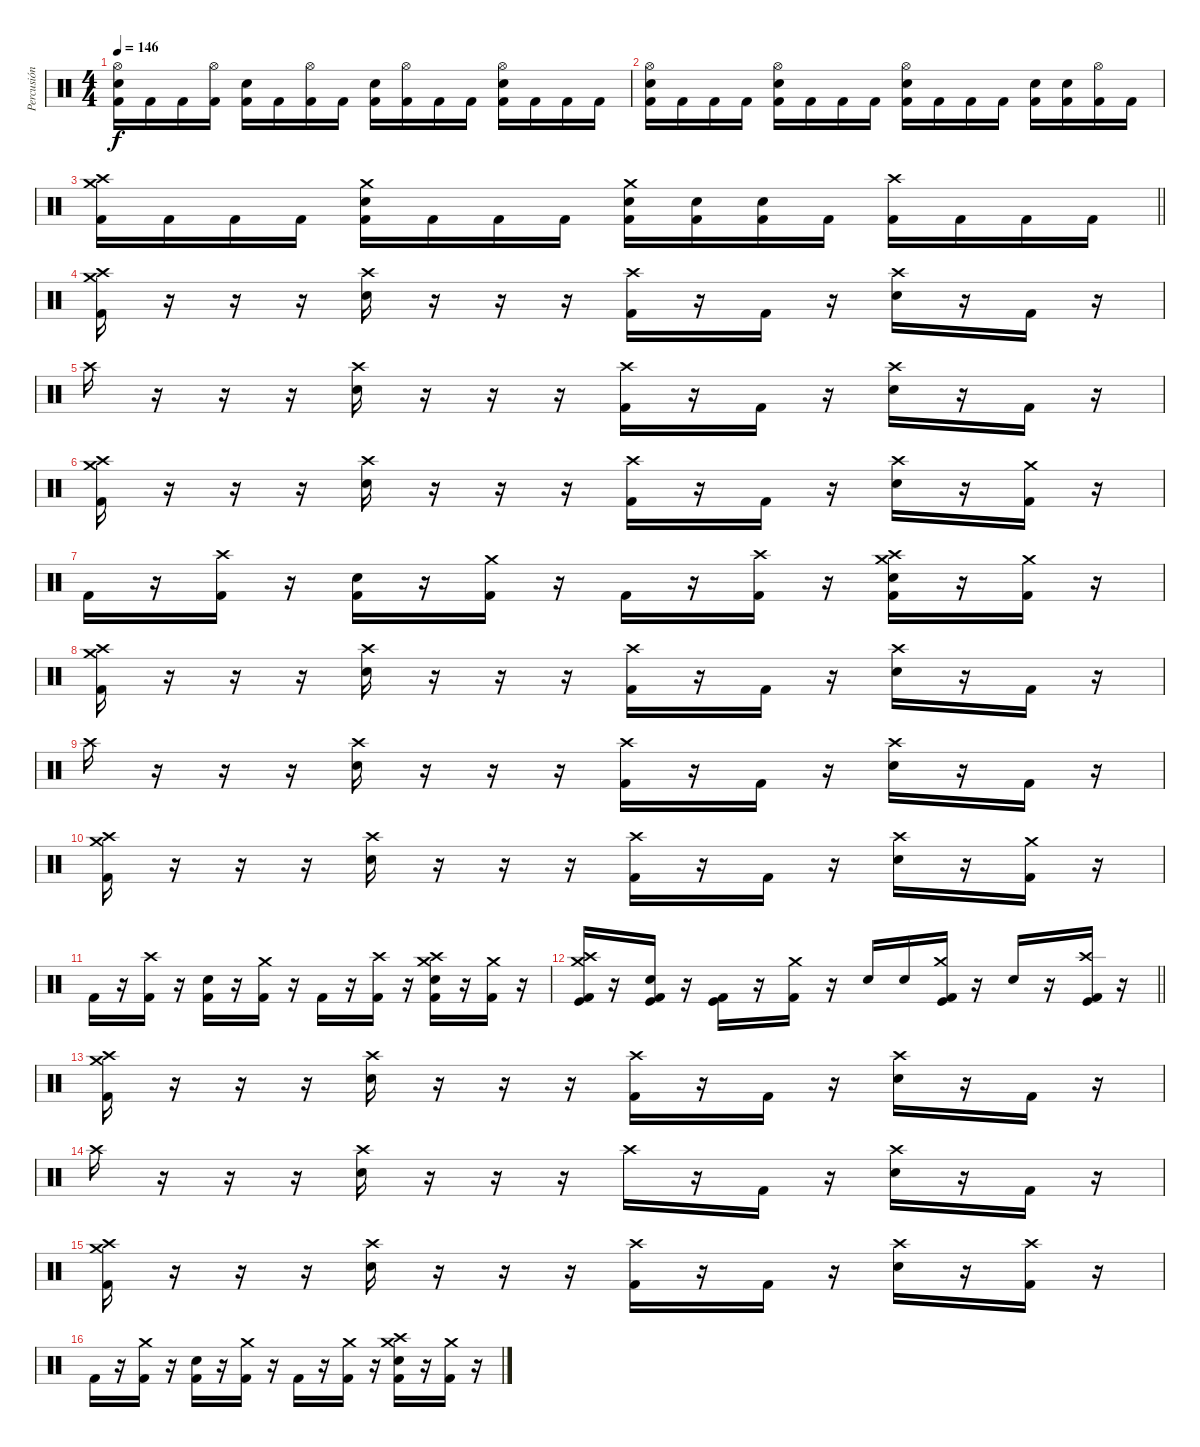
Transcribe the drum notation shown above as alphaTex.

\track ("Percusión" "Percusión") {instrument percussion}
\staff {score}
\articulation defaults
\ts (4 4)
\tempo 146
\clef neutral
\ks c
("Hi-Hat (open)" "Electric Snare (hit)" "Kick (hit) 2").16{dy f} "Kick (hit) 2".16 "Kick (hit) 2".16 ("Hi-Hat (open)" "Kick (hit) 2").16 ("Electric Snare (hit)" "Kick (hit) 2").16 "Kick (hit) 2".16 ("Hi-Hat (open)" "Kick (hit) 2").16 "Kick (hit) 2".16 ("Electric Snare (hit)" "Kick (hit) 2").16 ("Hi-Hat (open)" "Kick (hit) 2").16 "Kick (hit) 2".16 "Kick (hit) 2".16 ("Hi-Hat (open)" "Electric Snare (hit)" "Kick (hit) 2").16 "Kick (hit) 2".16 "Kick (hit) 2".16 "Kick (hit) 2".16 |
("Hi-Hat (open)" "Electric Snare (hit)" "Kick (hit) 2").16 "Kick (hit) 2".16 "Kick (hit) 2".16 "Kick (hit) 2".16 ("Hi-Hat (open)" "Electric Snare (hit)" "Kick (hit) 2").16 "Kick (hit) 2".16 "Kick (hit) 2".16 "Kick (hit) 2".16 ("Hi-Hat (open)" "Electric Snare (hit)" "Kick (hit) 2").16 "Kick (hit) 2".16 "Kick (hit) 2".16 "Kick (hit) 2".16 ("Electric Snare (hit)" "Kick (hit) 2").16 ("Electric Snare (hit)" "Kick (hit) 2").16 ("Hi-Hat (open)" "Kick (hit) 2").16 "Kick (hit) 2".16 |
\barLineRight lightlight
("Crash medium (hit)" "Crash high (hit)" "Kick (hit) 2").16 "Kick (hit) 2".16 "Kick (hit) 2".16 "Kick (hit) 2".16 ("Crash medium (hit)" "Electric Snare (hit)" "Kick (hit) 2").16 "Kick (hit) 2".16 "Kick (hit) 2".16 "Kick (hit) 2".16 ("Crash medium (hit)" "Electric Snare (hit)" "Kick (hit) 2").16 ("Electric Snare (hit)" "Kick (hit) 2").16 ("Electric Snare (hit)" "Kick (hit) 2").16 "Kick (hit) 2".16 ("Crash high (hit)" "Kick (hit) 2").16 "Kick (hit) 2".16 "Kick (hit) 2".16 "Kick (hit) 2".16 |
("Crash high (hit)" "Crash medium (hit)" "Kick (hit) 2").16 r.16 r.16 r.16 ("Crash high (hit)" "Electric Snare (hit)").16 r.16 r.16 r.16 ("Crash high (hit)" "Kick (hit) 2").16 r.16 "Kick (hit) 2".16 r.16 ("Crash high (hit)" "Electric Snare (hit)").16 r.16 "Kick (hit) 2".16 r.16 |
"Crash high (hit)".16 r.16 r.16 r.16 ("Crash high (hit)" "Electric Snare (hit)").16 r.16 r.16 r.16 ("Crash high (hit)" "Kick (hit) 2").16 r.16 "Kick (hit) 2".16 r.16 ("Crash high (hit)" "Electric Snare (hit)").16 r.16 "Kick (hit) 2".16 r.16 |
("Crash high (hit)" "Crash medium (hit)" "Kick (hit) 2").16 r.16 r.16 r.16 ("Crash high (hit)" "Electric Snare (hit)").16 r.16 r.16 r.16 ("Crash high (hit)" "Kick (hit) 2").16 r.16 "Kick (hit) 2".16 r.16 ("Crash high (hit)" "Electric Snare (hit)").16 r.16 ("Crash medium (hit)" "Kick (hit) 2").16 r.16 |
"Kick (hit) 2".16 r.16 ("Crash high (hit)" "Kick (hit) 2").16 r.16 ("Electric Snare (hit)" "Kick (hit) 2").16 r.16 ("Crash medium (hit)" "Kick (hit) 2").16 r.16 "Kick (hit) 2".16 r.16 ("Crash high (hit)" "Kick (hit) 2").16 r.16 ("Crash high (hit)" "Crash medium (hit)" "Electric Snare (hit)" "Kick (hit) 2").16 r.16 ("Crash medium (hit)" "Kick (hit) 2").16 r.16 |
("Crash high (hit)" "Crash medium (hit)" "Kick (hit) 2").16 r.16 r.16 r.16 ("Crash high (hit)" "Electric Snare (hit)").16 r.16 r.16 r.16 ("Crash high (hit)" "Kick (hit) 2").16 r.16 "Kick (hit) 2".16 r.16 ("Crash high (hit)" "Electric Snare (hit)").16 r.16 "Kick (hit) 2".16 r.16 |
"Crash high (hit)".16 r.16 r.16 r.16 ("Crash high (hit)" "Electric Snare (hit)").16 r.16 r.16 r.16 ("Crash high (hit)" "Kick (hit) 2").16 r.16 "Kick (hit) 2".16 r.16 ("Crash high (hit)" "Electric Snare (hit)").16 r.16 "Kick (hit) 2".16 r.16 |
("Crash high (hit)" "Crash medium (hit)" "Kick (hit) 2").16 r.16 r.16 r.16 ("Crash high (hit)" "Electric Snare (hit)").16 r.16 r.16 r.16 ("Crash high (hit)" "Kick (hit) 2").16 r.16 "Kick (hit) 2".16 r.16 ("Crash high (hit)" "Electric Snare (hit)").16 r.16 ("Crash medium (hit)" "Kick (hit) 2").16 r.16 |
"Kick (hit) 2".16 r.16 ("Crash high (hit)" "Kick (hit) 2").16 r.16 ("Electric Snare (hit)" "Kick (hit) 2").16 r.16 ("Crash medium (hit)" "Kick (hit) 2").16 r.16 "Kick (hit) 2".16 r.16 ("Crash high (hit)" "Kick (hit) 2").16 r.16 ("Crash high (hit)" "Crash medium (hit)" "Electric Snare (hit)" "Kick (hit) 2").16 r.16 ("Crash medium (hit)" "Kick (hit) 2").16 r.16 |
\barLineRight lightlight
("Crash high (hit)" "Crash medium (hit)" "Kick (hit)" "Kick (hit) 2").16 r.16 ("Electric Snare (hit)" "Kick (hit)" "Kick (hit) 2").16 r.16 ("Kick (hit)" "Kick (hit) 2").16 r.16 ("Crash medium (hit)" "Kick (hit) 2").16 r.16 "Electric Snare (hit)".16 "Electric Snare (hit)".16 ("Crash medium (hit)" "Kick (hit)" "Kick (hit) 2").16 r.16 "Electric Snare (hit)".16 r.16 ("Crash high (hit)" "Kick (hit)" "Kick (hit) 2").16 r.16 |
("Crash high (hit)" "Crash medium (hit)" "Kick (hit) 2").16 r.16 r.16 r.16 ("Crash high (hit)" "Electric Snare (hit)").16 r.16 r.16 r.16 ("Crash high (hit)" "Kick (hit) 2").16 r.16 "Kick (hit) 2".16 r.16 ("Crash high (hit)" "Electric Snare (hit)").16 r.16 "Kick (hit) 2".16 r.16 |
"Crash high (hit)".16 r.16 r.16 r.16 ("Crash high (hit)" "Electric Snare (hit)").16 r.16 r.16 r.16 "Crash high (hit)".16 r.16 "Kick (hit) 2".16 r.16 ("Crash high (hit)" "Electric Snare (hit)").16 r.16 "Kick (hit) 2".16 r.16 |
("Crash high (hit)" "Crash medium (hit)" "Kick (hit) 2").16 r.16 r.16 r.16 ("Crash high (hit)" "Electric Snare (hit)").16 r.16 r.16 r.16 ("Crash high (hit)" "Kick (hit) 2").16 r.16 "Kick (hit) 2".16 r.16 ("Crash high (hit)" "Electric Snare (hit)").16 r.16 ("Crash high (hit)" "Kick (hit) 2").16 r.16 |
"Kick (hit) 2".16 r.16 ("Crash medium (hit)" "Kick (hit) 2").16 r.16 ("Electric Snare (hit)" "Kick (hit) 2").16 r.16 ("Crash medium (hit)" "Kick (hit) 2").16 r.16 "Kick (hit) 2".16 r.16 ("Crash medium (hit)" "Kick (hit) 2").16 r.16 ("Crash high (hit)" "Crash medium (hit)" "Electric Snare (hit)" "Kick (hit) 2").16 r.16 ("Crash medium (hit)" "Kick (hit) 2").16 r.16
